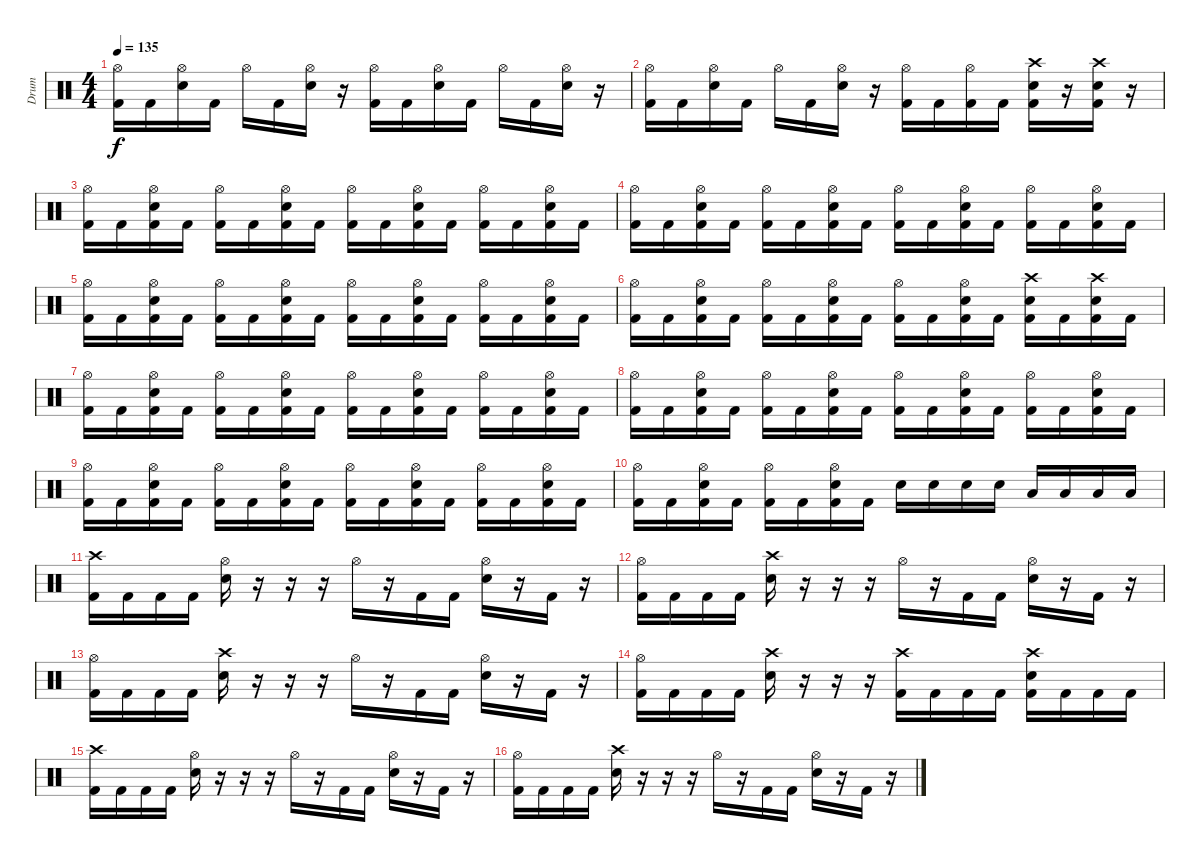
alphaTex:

\track ("Drum" "Drum") {instrument percussion}
\staff {score}
\articulation defaults
\ts (4 4)
\tempo 135
\clef neutral
\ks c
("Hi-Hat (open)" "Kick (hit) 2").16{dy f} "Kick (hit) 2".16 ("Hi-Hat (open)" "Electric Snare (hit)").16 "Kick (hit) 2".16 "Hi-Hat (open)".16 "Kick (hit) 2".16 ("Hi-Hat (open)" "Electric Snare (hit)").16 r.16 ("Hi-Hat (open)" "Kick (hit) 2").16 "Kick (hit) 2".16 ("Hi-Hat (open)" "Electric Snare (hit)").16 "Kick (hit) 2".16 "Hi-Hat (open)".16 "Kick (hit) 2".16 ("Hi-Hat (open)" "Electric Snare (hit)").16 r.16 |
("Hi-Hat (open)" "Kick (hit) 2").16 "Kick (hit) 2".16 ("Hi-Hat (open)" "Electric Snare (hit)").16 "Kick (hit) 2".16 "Hi-Hat (open)".16 "Kick (hit) 2".16 ("Hi-Hat (open)" "Electric Snare (hit)").16 r.16 ("Hi-Hat (open)" "Kick (hit) 2").16 "Kick (hit) 2".16 ("Hi-Hat (open)" "Kick (hit) 2").16 "Kick (hit) 2".16 ("Crash high (hit)" "Electric Snare (hit)" "Kick (hit) 2").16 r.16 ("Crash high (hit)" "Electric Snare (hit)" "Kick (hit) 2").16 r.16 |
("Hi-Hat (open)" "Kick (hit) 2").16 "Kick (hit) 2".16 ("Hi-Hat (open)" "Electric Snare (hit)" "Kick (hit) 2").16 "Kick (hit) 2".16 ("Hi-Hat (open)" "Kick (hit) 2").16 "Kick (hit) 2".16 ("Hi-Hat (open)" "Electric Snare (hit)" "Kick (hit) 2").16 "Kick (hit) 2".16 ("Hi-Hat (open)" "Kick (hit) 2").16 "Kick (hit) 2".16 ("Hi-Hat (open)" "Electric Snare (hit)" "Kick (hit) 2").16 "Kick (hit) 2".16 ("Hi-Hat (open)" "Kick (hit) 2").16 "Kick (hit) 2".16 ("Hi-Hat (open)" "Electric Snare (hit)" "Kick (hit) 2").16 "Kick (hit) 2".16 |
("Hi-Hat (open)" "Kick (hit) 2").16 "Kick (hit) 2".16 ("Hi-Hat (open)" "Electric Snare (hit)" "Kick (hit) 2").16 "Kick (hit) 2".16 ("Hi-Hat (open)" "Kick (hit) 2").16 "Kick (hit) 2".16 ("Hi-Hat (open)" "Electric Snare (hit)" "Kick (hit) 2").16 "Kick (hit) 2".16 ("Hi-Hat (open)" "Kick (hit) 2").16 "Kick (hit) 2".16 ("Hi-Hat (open)" "Electric Snare (hit)" "Kick (hit) 2").16 "Kick (hit) 2".16 ("Hi-Hat (open)" "Kick (hit) 2").16 "Kick (hit) 2".16 ("Hi-Hat (open)" "Electric Snare (hit)" "Kick (hit) 2").16 "Kick (hit) 2".16 |
("Hi-Hat (open)" "Kick (hit) 2").16 "Kick (hit) 2".16 ("Hi-Hat (open)" "Electric Snare (hit)" "Kick (hit) 2").16 "Kick (hit) 2".16 ("Hi-Hat (open)" "Kick (hit) 2").16 "Kick (hit) 2".16 ("Hi-Hat (open)" "Electric Snare (hit)" "Kick (hit) 2").16 "Kick (hit) 2".16 ("Hi-Hat (open)" "Kick (hit) 2").16 "Kick (hit) 2".16 ("Hi-Hat (open)" "Electric Snare (hit)" "Kick (hit) 2").16 "Kick (hit) 2".16 ("Hi-Hat (open)" "Kick (hit) 2").16 "Kick (hit) 2".16 ("Hi-Hat (open)" "Electric Snare (hit)" "Kick (hit) 2").16 "Kick (hit) 2".16 |
("Hi-Hat (open)" "Kick (hit) 2").16 "Kick (hit) 2".16 ("Hi-Hat (open)" "Electric Snare (hit)" "Kick (hit) 2").16 "Kick (hit) 2".16 ("Hi-Hat (open)" "Kick (hit) 2").16 "Kick (hit) 2".16 ("Hi-Hat (open)" "Electric Snare (hit)" "Kick (hit) 2").16 "Kick (hit) 2".16 ("Hi-Hat (open)" "Kick (hit) 2").16 "Kick (hit) 2".16 ("Hi-Hat (open)" "Electric Snare (hit)" "Kick (hit) 2").16 "Kick (hit) 2".16 ("Crash high (hit)" "Electric Snare (hit)" "Kick (hit) 2").16 "Kick (hit) 2".16 ("Crash high (hit)" "Electric Snare (hit)" "Kick (hit) 2").16 "Kick (hit) 2".16 |
("Hi-Hat (open)" "Kick (hit) 2").16 "Kick (hit) 2".16 ("Hi-Hat (open)" "Electric Snare (hit)" "Kick (hit) 2").16 "Kick (hit) 2".16 ("Hi-Hat (open)" "Kick (hit) 2").16 "Kick (hit) 2".16 ("Hi-Hat (open)" "Electric Snare (hit)" "Kick (hit) 2").16 "Kick (hit) 2".16 ("Hi-Hat (open)" "Kick (hit) 2").16 "Kick (hit) 2".16 ("Hi-Hat (open)" "Electric Snare (hit)" "Kick (hit) 2").16 "Kick (hit) 2".16 ("Hi-Hat (open)" "Kick (hit) 2").16 "Kick (hit) 2".16 ("Hi-Hat (open)" "Electric Snare (hit)" "Kick (hit) 2").16 "Kick (hit) 2".16 |
("Hi-Hat (open)" "Kick (hit) 2").16 "Kick (hit) 2".16 ("Hi-Hat (open)" "Electric Snare (hit)" "Kick (hit) 2").16 "Kick (hit) 2".16 ("Hi-Hat (open)" "Kick (hit) 2").16 "Kick (hit) 2".16 ("Hi-Hat (open)" "Electric Snare (hit)" "Kick (hit) 2").16 "Kick (hit) 2".16 ("Hi-Hat (open)" "Kick (hit) 2").16 "Kick (hit) 2".16 ("Hi-Hat (open)" "Electric Snare (hit)" "Kick (hit) 2").16 "Kick (hit) 2".16 ("Hi-Hat (open)" "Kick (hit) 2").16 "Kick (hit) 2".16 ("Hi-Hat (open)" "Electric Snare (hit)" "Kick (hit) 2").16 "Kick (hit) 2".16 |
("Hi-Hat (open)" "Kick (hit) 2").16 "Kick (hit) 2".16 ("Hi-Hat (open)" "Electric Snare (hit)" "Kick (hit) 2").16 "Kick (hit) 2".16 ("Hi-Hat (open)" "Kick (hit) 2").16 "Kick (hit) 2".16 ("Hi-Hat (open)" "Electric Snare (hit)" "Kick (hit) 2").16 "Kick (hit) 2".16 ("Hi-Hat (open)" "Kick (hit) 2").16 "Kick (hit) 2".16 ("Hi-Hat (open)" "Electric Snare (hit)" "Kick (hit) 2").16 "Kick (hit) 2".16 ("Hi-Hat (open)" "Kick (hit) 2").16 "Kick (hit) 2".16 ("Hi-Hat (open)" "Electric Snare (hit)" "Kick (hit) 2").16 "Kick (hit) 2".16 |
("Hi-Hat (open)" "Kick (hit) 2").16 "Kick (hit) 2".16 ("Hi-Hat (open)" "Electric Snare (hit)" "Kick (hit) 2").16 "Kick (hit) 2".16 ("Hi-Hat (open)" "Kick (hit) 2").16 "Kick (hit) 2".16 ("Hi-Hat (open)" "Electric Snare (hit)" "Kick (hit) 2").16 "Kick (hit) 2".16 "Electric Snare (hit)".16 "Electric Snare (hit)".16 "Electric Snare (hit)".16 "Electric Snare (hit)".16 "Low Floor Tom (hit)".16 "Low Floor Tom (hit)".16 "Low Floor Tom (hit)".16 "Low Floor Tom (hit)".16 |
("Crash high (hit)" "Kick (hit) 2").16 "Kick (hit) 2".16 "Kick (hit) 2".16 "Kick (hit) 2".16 ("Hi-Hat (open)" "Electric Snare (hit)").16 r.16 r.16 r.16 "Hi-Hat (open)".16 r.16 "Kick (hit) 2".16 "Kick (hit) 2".16 ("Hi-Hat (open)" "Electric Snare (hit)").16 r.16 "Kick (hit) 2".16 r.16 |
("Hi-Hat (open)" "Kick (hit) 2").16 "Kick (hit) 2".16 "Kick (hit) 2".16 "Kick (hit) 2".16 ("Crash high (hit)" "Electric Snare (hit)").16 r.16 r.16 r.16 "Hi-Hat (open)".16 r.16 "Kick (hit) 2".16 "Kick (hit) 2".16 ("Hi-Hat (open)" "Electric Snare (hit)").16 r.16 "Kick (hit) 2".16 r.16 |
("Hi-Hat (open)" "Kick (hit) 2").16 "Kick (hit) 2".16 "Kick (hit) 2".16 "Kick (hit) 2".16 ("Crash high (hit)" "Electric Snare (hit)").16 r.16 r.16 r.16 "Hi-Hat (open)".16 r.16 "Kick (hit) 2".16 "Kick (hit) 2".16 ("Hi-Hat (open)" "Electric Snare (hit)").16 r.16 "Kick (hit) 2".16 r.16 |
("Hi-Hat (open)" "Kick (hit) 2").16 "Kick (hit) 2".16 "Kick (hit) 2".16 "Kick (hit) 2".16 ("Crash high (hit)" "Electric Snare (hit)").16 r.16 r.16 r.16 ("Crash high (hit)" "Kick (hit) 2").16 "Kick (hit) 2".16 "Kick (hit) 2".16 "Kick (hit) 2".16 ("Crash high (hit)" "Electric Snare (hit)" "Kick (hit) 2").16 "Kick (hit) 2".16 "Kick (hit) 2".16 "Kick (hit) 2".16 |
("Crash high (hit)" "Kick (hit) 2").16 "Kick (hit) 2".16 "Kick (hit) 2".16 "Kick (hit) 2".16 ("Hi-Hat (open)" "Electric Snare (hit)").16 r.16 r.16 r.16 "Hi-Hat (open)".16 r.16 "Kick (hit) 2".16 "Kick (hit) 2".16 ("Hi-Hat (open)" "Electric Snare (hit)").16 r.16 "Kick (hit) 2".16 r.16 |
("Hi-Hat (open)" "Kick (hit) 2").16 "Kick (hit) 2".16 "Kick (hit) 2".16 "Kick (hit) 2".16 ("Crash high (hit)" "Electric Snare (hit)").16 r.16 r.16 r.16 "Hi-Hat (open)".16 r.16 "Kick (hit) 2".16 "Kick (hit) 2".16 ("Hi-Hat (open)" "Electric Snare (hit)").16 r.16 "Kick (hit) 2".16 r.16
